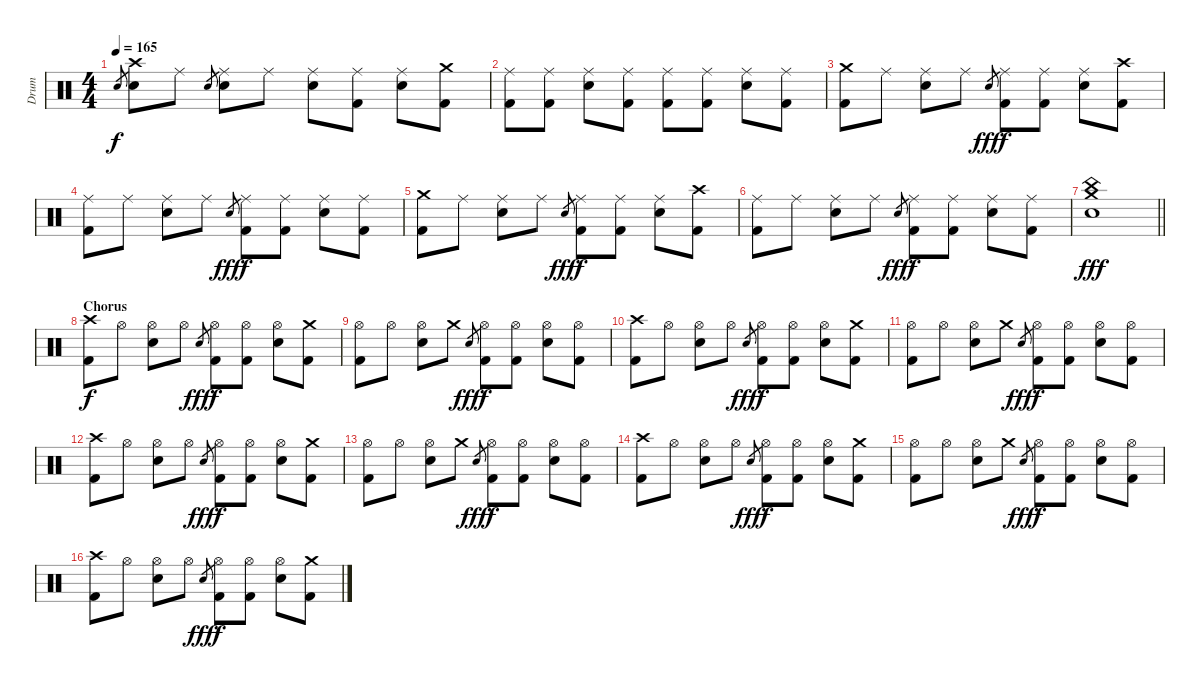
\track ("Drum" "Drum") {instrument percussion}
\staff {score}
\articulation defaults
\ts (4 4)
\tempo 165
\clef neutral
\ks c "Electric Snare (hit)".8{gr dy f}
("Crash high (hit)" "Electric Snare (hit)").8 "Ride (middle)".8 "Electric Snare (hit)".8{gr} ("Ride (middle)" "Electric Snare (hit)").8 "Ride (middle)".8 ("Ride (middle)" "Electric Snare (hit)").8 ("Ride (middle)" "Kick (hit) 2").8 ("Ride (middle)" "Electric Snare (hit)").8 ("Crash medium (hit)" "Kick (hit) 2").8 |
("Ride (middle)" "Kick (hit) 2").8 ("Ride (middle)" "Kick (hit) 2").8 ("Ride (middle)" "Electric Snare (hit)").8 ("Ride (middle)" "Kick (hit) 2").8 ("Ride (middle)" "Kick (hit) 2").8 ("Ride (middle)" "Kick (hit) 2").8 ("Ride (middle)" "Electric Snare (hit)").8 ("Ride (middle)" "Kick (hit) 2").8 |
("Crash medium (hit)" "Kick (hit) 2").8 "Ride (middle)".8 ("Ride (middle)" "Electric Snare (hit)").8 "Ride (middle)".8 "Electric Snare (hit)".8{gr dy fff} ("Ride (middle)" "Kick (hit) 2").8{dy f} ("Ride (middle)" "Kick (hit) 2").8 ("Ride (middle)" "Electric Snare (hit)").8 ("Crash high (hit)" "Kick (hit) 2").8 |
("Ride (middle)" "Kick (hit) 2").8 "Ride (middle)".8 ("Ride (middle)" "Electric Snare (hit)").8 "Ride (middle)".8 "Electric Snare (hit)".8{gr dy fff} ("Ride (middle)" "Kick (hit) 2").8{dy f} ("Ride (middle)" "Kick (hit) 2").8 ("Ride (middle)" "Electric Snare (hit)").8 ("Ride (middle)" "Kick (hit) 2").8 |
("Crash medium (hit)" "Kick (hit) 2").8 "Ride (middle)".8 ("Ride (middle)" "Electric Snare (hit)").8 "Ride (middle)".8 "Electric Snare (hit)".8{gr dy fff} ("Ride (middle)" "Kick (hit) 2").8{dy f} ("Ride (middle)" "Kick (hit) 2").8 ("Ride (middle)" "Electric Snare (hit)").8 ("Crash high (hit)" "Kick (hit) 2").8 |
("Ride (middle)" "Kick (hit) 2").8 "Ride (middle)".8 ("Ride (middle)" "Electric Snare (hit)").8 "Ride (middle)".8 "Electric Snare (hit)".8{gr dy fff} ("Ride (middle)" "Kick (hit) 2").8{dy f} ("Ride (middle)" "Kick (hit) 2").8 ("Ride (middle)" "Electric Snare (hit)").8 ("Ride (middle)" "Kick (hit) 2").8 |
\barLineRight lightlight
("Crash medium (hit)" "China (hit)" "Electric Snare (hit)").1{dy fff} |
\section ("" "Chorus")
("Crash high (hit)" "Kick (hit) 2").8{dy f} "Hi-Hat (open)".8 ("Hi-Hat (open)" "Electric Snare (hit)").8 "Hi-Hat (open)".8 "Electric Snare (hit)".8{gr dy fff} ("Hi-Hat (open)" "Kick (hit) 2").8{dy f} ("Hi-Hat (open)" "Kick (hit) 2").8 ("Hi-Hat (open)" "Electric Snare (hit)").8 ("Crash medium (hit)" "Kick (hit) 2").8 |
("Hi-Hat (open)" "Kick (hit) 2").8 "Hi-Hat (open)".8 ("Hi-Hat (open)" "Electric Snare (hit)").8 "Crash medium (hit)".8 "Electric Snare (hit)".8{gr dy fff} ("Hi-Hat (open)" "Kick (hit) 2").8{dy f} ("Hi-Hat (open)" "Kick (hit) 2").8 ("Hi-Hat (open)" "Electric Snare (hit)").8 ("Hi-Hat (open)" "Kick (hit) 2").8 |
("Crash high (hit)" "Kick (hit) 2").8 "Hi-Hat (open)".8 ("Hi-Hat (open)" "Electric Snare (hit)").8 "Hi-Hat (open)".8 "Electric Snare (hit)".8{gr dy fff} ("Hi-Hat (open)" "Kick (hit) 2").8{dy f} ("Hi-Hat (open)" "Kick (hit) 2").8 ("Hi-Hat (open)" "Electric Snare (hit)").8 ("Crash medium (hit)" "Kick (hit) 2").8 |
("Hi-Hat (open)" "Kick (hit) 2").8 "Hi-Hat (open)".8 ("Hi-Hat (open)" "Electric Snare (hit)").8 "Crash medium (hit)".8 "Electric Snare (hit)".8{gr dy fff} ("Hi-Hat (open)" "Kick (hit) 2").8{dy f} ("Hi-Hat (open)" "Kick (hit) 2").8 ("Hi-Hat (open)" "Electric Snare (hit)").8 ("Hi-Hat (open)" "Kick (hit) 2").8 |
("Crash high (hit)" "Kick (hit) 2").8 "Hi-Hat (open)".8 ("Hi-Hat (open)" "Electric Snare (hit)").8 "Hi-Hat (open)".8 "Electric Snare (hit)".8{gr dy fff} ("Hi-Hat (open)" "Kick (hit) 2").8{dy f} ("Hi-Hat (open)" "Kick (hit) 2").8 ("Hi-Hat (open)" "Electric Snare (hit)").8 ("Crash medium (hit)" "Kick (hit) 2").8 |
("Hi-Hat (open)" "Kick (hit) 2").8 "Hi-Hat (open)".8 ("Hi-Hat (open)" "Electric Snare (hit)").8 "Crash medium (hit)".8 "Electric Snare (hit)".8{gr dy fff} ("Hi-Hat (open)" "Kick (hit) 2").8{dy f} ("Hi-Hat (open)" "Kick (hit) 2").8 ("Hi-Hat (open)" "Electric Snare (hit)").8 ("Hi-Hat (open)" "Kick (hit) 2").8 |
("Crash high (hit)" "Kick (hit) 2").8 "Hi-Hat (open)".8 ("Hi-Hat (open)" "Electric Snare (hit)").8 "Hi-Hat (open)".8 "Electric Snare (hit)".8{gr dy fff} ("Hi-Hat (open)" "Kick (hit) 2").8{dy f} ("Hi-Hat (open)" "Kick (hit) 2").8 ("Hi-Hat (open)" "Electric Snare (hit)").8 ("Crash medium (hit)" "Kick (hit) 2").8 |
("Hi-Hat (open)" "Kick (hit) 2").8 "Hi-Hat (open)".8 ("Hi-Hat (open)" "Electric Snare (hit)").8 "Crash medium (hit)".8 "Electric Snare (hit)".8{gr dy fff} ("Hi-Hat (open)" "Kick (hit) 2").8{dy f} ("Hi-Hat (open)" "Kick (hit) 2").8 ("Hi-Hat (open)" "Electric Snare (hit)").8 ("Hi-Hat (open)" "Kick (hit) 2").8 |
("Crash high (hit)" "Kick (hit) 2").8 "Hi-Hat (open)".8 ("Hi-Hat (open)" "Electric Snare (hit)").8 "Hi-Hat (open)".8 "Electric Snare (hit)".8{gr dy fff} ("Hi-Hat (open)" "Kick (hit) 2").8{dy f} ("Hi-Hat (open)" "Kick (hit) 2").8 ("Hi-Hat (open)" "Electric Snare (hit)").8 ("Crash medium (hit)" "Kick (hit) 2").8
